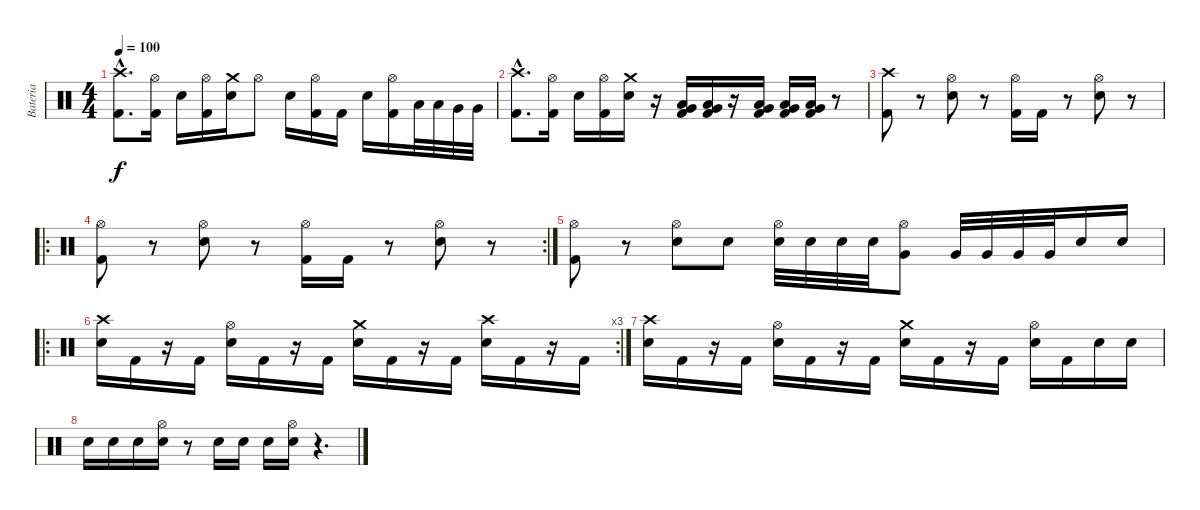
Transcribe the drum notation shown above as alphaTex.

\track ("Bateria" "Bateria") {instrument percussion}
\staff {score}
\articulation defaults
\ts (4 4)
\tempo 100
\clef neutral
\ks c
("Crash high (hit)"{hac} "Kick (hit) 2"{hac}).8{d dy f} ("Hi-Hat (open)" "Kick (hit) 2").16 "Snare (hit) 2".16 ("Hi-Hat (open)" "Kick (hit) 2").16 ("Crash medium (hit)" "Snare (hit) 2").16 "Hi-Hat (open)".8 "Snare (hit) 2".16 ("Hi-Hat (open)" "Kick (hit) 2").16 "Kick (hit) 2".16 "Snare (hit) 2".16 ("Hi-Hat (open)" "Kick (hit) 2").16 "Low Tom (hit)".32 "Low Tom (hit)".32 "Very Low Tom (hit)".32 "Very Low Tom (hit)".32 |
("Crash high (hit)"{hac} "Kick (hit) 2"{hac}).8{d} ("Hi-Hat (open)" "Kick (hit) 2").16 "Snare (hit) 2".16 ("Hi-Hat (open)" "Kick (hit) 2").16 ("Crash medium (hit)" "Snare (hit) 2").16 r.16 ("Low Tom (hit)" "Very Low Tom (hit)" "Kick (hit) 2").16 ("Low Tom (hit)" "Very Low Tom (hit)" "Kick (hit) 2").16 r.16 ("Low Tom (hit)" "Very Low Tom (hit)" "Kick (hit) 2").16 ("Low Tom (hit)" "Very Low Tom (hit)" "Kick (hit) 2").16 ("Low Tom (hit)" "Very Low Tom (hit)" "Kick (hit) 2").16 r.8 |
("Crash high (hit)" "Kick (hit) 2").8 r.8 ("Hi-Hat (open)" "Snare (hit) 2").8 r.8 ("Hi-Hat (open)" "Kick (hit) 2").16 "Kick (hit) 2".16 r.8 ("Hi-Hat (open)" "Snare (hit) 2").8 r.8 |
\ro
\rc 2
("Hi-Hat (open)" "Kick (hit) 2").8 r.8 ("Hi-Hat (open)" "Snare (hit) 2").8 r.8 ("Hi-Hat (open)" "Kick (hit) 2").16 "Kick (hit) 2".16 r.8 ("Hi-Hat (open)" "Snare (hit) 2").8 r.8 |
("Hi-Hat (open)" "Kick (hit) 2").8 r.8 ("Hi-Hat (open)" "Snare (hit) 2").8 "Snare (hit) 2".8 ("Hi-Hat (open)" "Snare (hit) 2").32 "Snare (hit) 2".32 "Snare (hit) 2".32 "Snare (hit) 2".32 ("Hi-Hat (open)" "Very Low Tom (hit)").8 "Very Low Tom (hit)".32 "Very Low Tom (hit)".32 "Very Low Tom (hit)".32 "Very Low Tom (hit)".32 "Snare (hit) 2".16 "Snare (hit) 2".16 |
\ro
\rc 3
("Crash high (hit)" "Snare (hit) 2").16 "Kick (hit) 2".16 r.16 "Kick (hit) 2".16 ("Hi-Hat (open)" "Snare (hit) 2").16 "Kick (hit) 2".16 r.16 "Kick (hit) 2".16 ("Crash medium (hit)" "Snare (hit) 2").16 "Kick (hit) 2".16 r.16 "Kick (hit) 2".16 ("Crash high (hit)" "Snare (hit) 2").16 "Kick (hit) 2".16 r.16 "Kick (hit) 2".16 |
("Crash high (hit)" "Snare (hit) 2").16 "Kick (hit) 2".16 r.16 "Kick (hit) 2".16 ("Hi-Hat (open)" "Snare (hit) 2").16 "Kick (hit) 2".16 r.16 "Kick (hit) 2".16 ("Crash medium (hit)" "Snare (hit) 2").16 "Kick (hit) 2".16 r.16 "Kick (hit) 2".16 ("Hi-Hat (open)" "Snare (hit) 2").16 "Kick (hit) 2".16 "Snare (hit) 2".16 "Snare (hit) 2".16 |
"Snare (hit) 2".16 "Snare (hit) 2".16 "Snare (hit) 2".16 ("Hi-Hat (open)" "Snare (hit) 2").16 r.8 "Snare (hit) 2".16 "Snare (hit) 2".16 "Snare (hit) 2".16 ("Hi-Hat (open)" "Snare (hit) 2").16 r.4{d}
